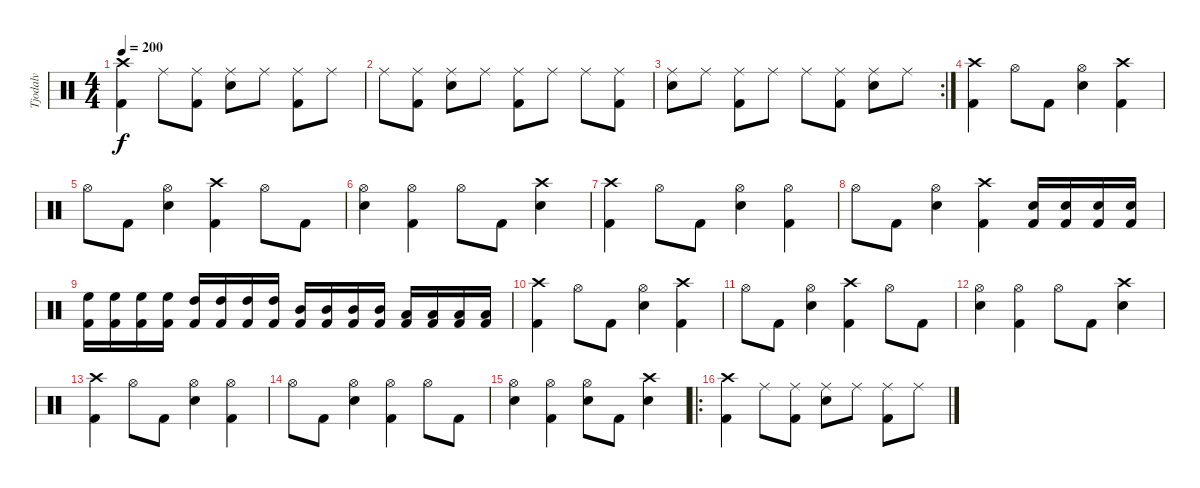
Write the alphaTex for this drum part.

\track ("Tjodalv" "Tjodalv") {instrument percussion}
\staff {score}
\articulation defaults
\ts (4 4)
\tempo 200
\clef neutral
\ks c
("Kick (hit) 2" "Crash high (hit)").4{dy f} "Ride (middle)".8 ("Kick (hit) 2" "Ride (middle)").8 ("Snare (hit) 2" "Ride (middle)").8 "Ride (middle)".8 ("Kick (hit) 2" "Ride (middle)").8 "Ride (middle)".8 |
"Ride (middle)".8 ("Kick (hit) 2" "Ride (middle)").8 ("Snare (hit) 2" "Ride (middle)").8 "Ride (middle)".8 ("Kick (hit) 2" "Ride (middle)").8 "Ride (middle)".8 "Ride (middle)".8 ("Kick (hit) 2" "Ride (middle)").8 |
\rc 2
("Snare (hit) 2" "Ride (middle)").8 "Ride (middle)".8 ("Kick (hit) 2" "Ride (middle)").8 "Ride (middle)".8 "Ride (middle)".8 ("Kick (hit) 2" "Ride (middle)").8 ("Snare (hit) 2" "Ride (middle)").8 "Ride (middle)".8 |
("Kick (hit) 2" "Crash high (hit)").4 "Hi-Hat (open)".8 "Kick (hit) 2".8 ("Snare (hit) 2" "Hi-Hat (open)").4 ("Kick (hit) 2" "Crash high (hit)").4 |
"Hi-Hat (open)".8 "Kick (hit) 2".8 ("Snare (hit) 2" "Hi-Hat (open)").4 ("Kick (hit) 2" "Crash high (hit)").4 "Hi-Hat (open)".8 "Kick (hit) 2".8 |
("Snare (hit) 2" "Hi-Hat (open)").4 ("Kick (hit) 2" "Hi-Hat (open)").4 "Hi-Hat (open)".8 "Kick (hit) 2".8 ("Snare (hit) 2" "Crash high (hit)").4 |
("Kick (hit) 2" "Crash high (hit)").4 "Hi-Hat (open)".8 "Kick (hit) 2".8 ("Snare (hit) 2" "Hi-Hat (open)").4 ("Kick (hit) 2" "Hi-Hat (open)").4 |
"Hi-Hat (open)".8 "Kick (hit) 2".8 ("Snare (hit) 2" "Hi-Hat (open)").4 ("Kick (hit) 2" "Crash high (hit)").4 ("Kick (hit) 2" "Snare (hit) 2").16 ("Kick (hit) 2" "Snare (hit) 2").16 ("Kick (hit) 2" "Snare (hit) 2").16 ("Kick (hit) 2" "Snare (hit) 2").16 |
("Kick (hit) 2" "High Floor Tom (hit)").16 ("Kick (hit) 2" "High Floor Tom (hit)").16 ("Kick (hit) 2" "High Floor Tom (hit)").16 ("Kick (hit) 2" "High Floor Tom (hit)").16 ("Kick (hit) 2" "High Tom (hit)").16 ("Kick (hit) 2" "High Tom (hit)").16 ("Kick (hit) 2" "High Tom (hit)").16 ("Kick (hit) 2" "High Tom (hit)").16 ("Kick (hit) 2" "Mid Tom (hit)").16 ("Kick (hit) 2" "Mid Tom (hit)").16 ("Kick (hit) 2" "Mid Tom (hit)").16 ("Kick (hit) 2" "Mid Tom (hit)").16 ("Kick (hit) 2" "Low Tom (hit)").16 ("Kick (hit) 2" "Low Tom (hit)").16 ("Kick (hit) 2" "Low Tom (hit)").16 ("Kick (hit) 2" "Low Tom (hit)").16 |
("Kick (hit) 2" "Crash high (hit)").4 "Hi-Hat (open)".8 "Kick (hit) 2".8 ("Snare (hit) 2" "Hi-Hat (open)").4 ("Kick (hit) 2" "Crash high (hit)").4 |
"Hi-Hat (open)".8 "Kick (hit) 2".8 ("Snare (hit) 2" "Hi-Hat (open)").4 ("Kick (hit) 2" "Crash high (hit)").4 "Hi-Hat (open)".8 "Kick (hit) 2".8 |
("Snare (hit) 2" "Hi-Hat (open)").4 ("Kick (hit) 2" "Hi-Hat (open)").4 "Hi-Hat (open)".8 "Kick (hit) 2".8 ("Snare (hit) 2" "Crash high (hit)").4 |
("Kick (hit) 2" "Crash high (hit)").4 "Hi-Hat (open)".8 "Kick (hit) 2".8 ("Snare (hit) 2" "Hi-Hat (open)").4 ("Kick (hit) 2" "Hi-Hat (open)").4 |
"Hi-Hat (open)".8 "Kick (hit) 2".8 ("Snare (hit) 2" "Hi-Hat (open)").4 ("Kick (hit) 2" "Hi-Hat (open)").4 "Hi-Hat (open)".8 "Kick (hit) 2".8 |
("Snare (hit) 2" "Hi-Hat (open)").4 ("Kick (hit) 2" "Hi-Hat (open)").4 ("Snare (hit) 2" "Hi-Hat (open)").8 "Kick (hit) 2".8 ("Snare (hit) 2" "Crash high (hit)").4 |
\ro
("Kick (hit) 2" "Crash high (hit)").4 "Ride (middle)".8 ("Kick (hit) 2" "Ride (middle)").8 ("Snare (hit) 2" "Ride (middle)").8 "Ride (middle)".8 ("Kick (hit) 2" "Ride (middle)").8 "Ride (middle)".8
